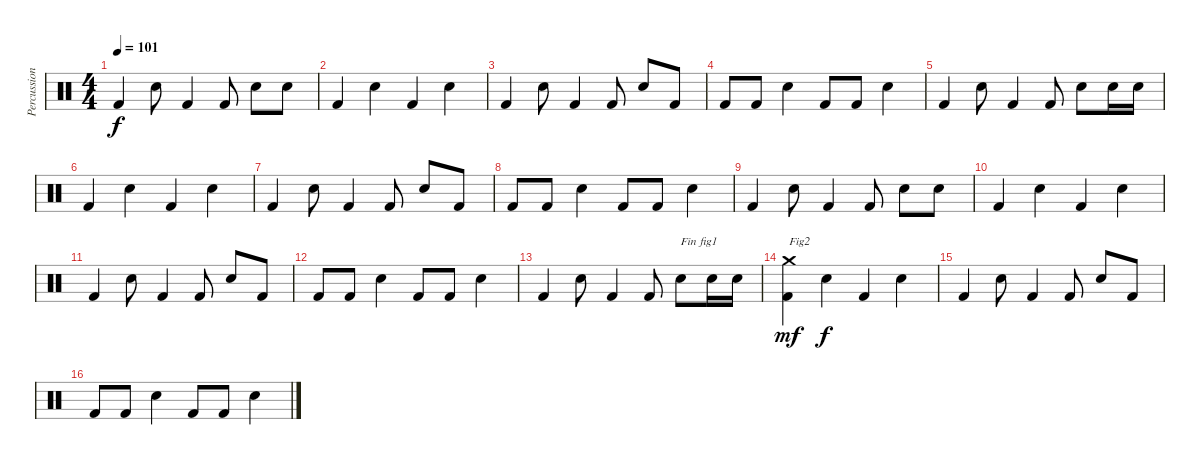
\track ("Percussions" "Percussion") {instrument percussion}
\staff {score}
\articulation defaults
\ts (4 4)
\tempo 101
\clef neutral
\ks c "Kick (hit) 2".4{dy f} "Snare (hit) 2".8 "Kick (hit) 2".4 "Kick (hit) 2".8 "Snare (hit) 2".8 "Snare (hit) 2".8
|
"Kick (hit) 2".4 "Snare (hit) 2".4 "Kick (hit) 2".4 "Snare (hit) 2".4 |
"Kick (hit) 2".4 "Snare (hit) 2".8 "Kick (hit) 2".4 "Kick (hit) 2".8 "Snare (hit) 2".8 "Kick (hit) 2".8 |
"Kick (hit) 2".8 "Kick (hit) 2".8 "Snare (hit) 2".4 "Kick (hit) 2".8 "Kick (hit) 2".8 "Snare (hit) 2".4 |
"Kick (hit) 2".4 "Snare (hit) 2".8 "Kick (hit) 2".4 "Kick (hit) 2".8 "Snare (hit) 2".8 "Snare (hit) 2".16 "Snare (hit) 2".16 |
"Kick (hit) 2".4 "Snare (hit) 2".4 "Kick (hit) 2".4 "Snare (hit) 2".4 |
"Kick (hit) 2".4 "Snare (hit) 2".8 "Kick (hit) 2".4 "Kick (hit) 2".8 "Snare (hit) 2".8 "Kick (hit) 2".8 |
"Kick (hit) 2".8 "Kick (hit) 2".8 "Snare (hit) 2".4 "Kick (hit) 2".8 "Kick (hit) 2".8 "Snare (hit) 2".4 |
"Kick (hit) 2".4 "Snare (hit) 2".8 "Kick (hit) 2".4 "Kick (hit) 2".8 "Snare (hit) 2".8 "Snare (hit) 2".8 |
"Kick (hit) 2".4 "Snare (hit) 2".4 "Kick (hit) 2".4 "Snare (hit) 2".4 |
"Kick (hit) 2".4 "Snare (hit) 2".8 "Kick (hit) 2".4 "Kick (hit) 2".8 "Snare (hit) 2".8 "Kick (hit) 2".8 |
"Kick (hit) 2".8 "Kick (hit) 2".8 "Snare (hit) 2".4 "Kick (hit) 2".8 "Kick (hit) 2".8 "Snare (hit) 2".4 |
"Kick (hit) 2".4 "Snare (hit) 2".8 "Kick (hit) 2".4 "Kick (hit) 2".8 "Snare (hit) 2".8{txt "Fin fig1"} "Snare (hit) 2".16 "Snare (hit) 2".16 |
("Kick (hit) 2" "Crash medium (hit)").4{txt "Fig2" dy mf} "Snare (hit) 2".4{dy f} "Kick (hit) 2".4 "Snare (hit) 2".4 |
"Kick (hit) 2".4 "Snare (hit) 2".8 "Kick (hit) 2".4 "Kick (hit) 2".8 "Snare (hit) 2".8 "Kick (hit) 2".8 |
"Kick (hit) 2".8 "Kick (hit) 2".8 "Snare (hit) 2".4 "Kick (hit) 2".8 "Kick (hit) 2".8 "Snare (hit) 2".4
